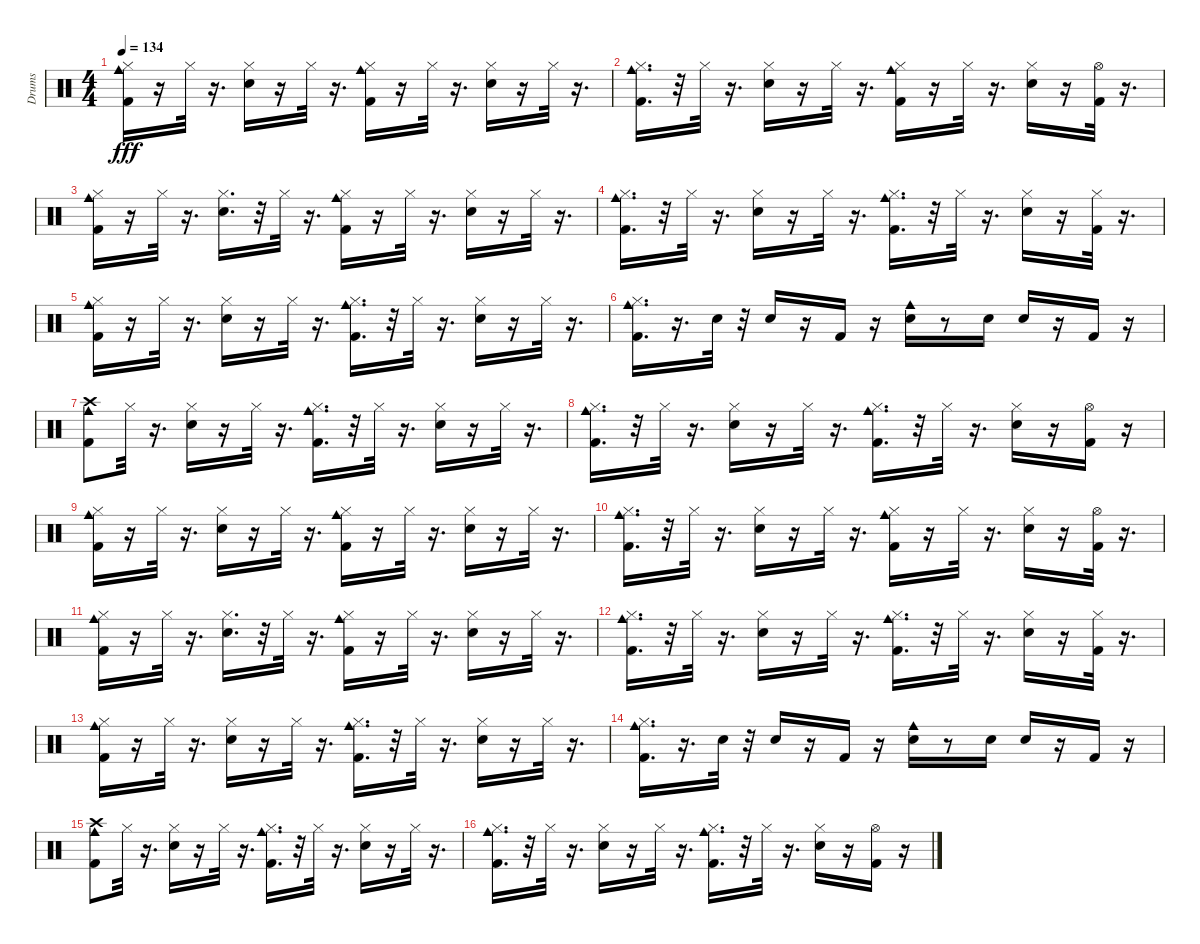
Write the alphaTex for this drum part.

\track ("Drums" "Drums") {instrument percussion}
\staff {score}
\articulation defaults
\ts (4 4)
\tempo 134
\clef neutral
\ks c
("Kick (hit) 2" "Hi-Hat (closed)" "Cowbell medium (hit)").16{dy fff} r.16 "Hi-Hat (closed)".32 r.16{d} ("Snare (hit) 2" "Hi-Hat (closed)").16 r.16 "Hi-Hat (closed)".32 r.16{d} ("Kick (hit) 2" "Hi-Hat (closed)" "Cowbell medium (hit)").16 r.16 "Hi-Hat (closed)".32 r.16{d} ("Snare (hit) 2" "Hi-Hat (closed)").16 r.16 "Hi-Hat (closed)".32 r.16{d} |
("Kick (hit) 2" "Hi-Hat (closed)" "Cowbell medium (hit)").16{d} r.32 "Hi-Hat (closed)".32 r.16{d} ("Snare (hit) 2" "Hi-Hat (closed)").16 r.16 "Hi-Hat (closed)".32 r.16{d} ("Kick (hit) 2" "Hi-Hat (closed)" "Cowbell medium (hit)").16 r.16 "Hi-Hat (closed)".32 r.16{d} ("Snare (hit) 2" "Hi-Hat (closed)").16 r.16 ("Kick (hit) 2" "Hi-Hat (open)").32 r.16{d} |
("Kick (hit) 2" "Hi-Hat (closed)" "Cowbell medium (hit)").16 r.16 "Hi-Hat (closed)".32 r.16{d} ("Snare (hit) 2" "Hi-Hat (closed)").16{d} r.32 "Hi-Hat (closed)".32 r.16{d} ("Kick (hit) 2" "Hi-Hat (closed)" "Cowbell medium (hit)").16 r.16 "Hi-Hat (closed)".32 r.16{d} ("Snare (hit) 2" "Hi-Hat (closed)").16 r.16 "Hi-Hat (closed)".32 r.16{d} |
("Kick (hit) 2" "Hi-Hat (closed)" "Cowbell medium (hit)").16{d} r.32 "Hi-Hat (closed)".32 r.16{d} ("Snare (hit) 2" "Hi-Hat (closed)").16 r.16 "Hi-Hat (closed)".32 r.16{d} ("Kick (hit) 2" "Hi-Hat (closed)" "Cowbell medium (hit)").16{d} r.32 "Hi-Hat (closed)".32 r.16{d} ("Snare (hit) 2" "Hi-Hat (closed)").16 r.16 ("Kick (hit) 2" "Hi-Hat (closed)").32 r.16{d} |
("Kick (hit) 2" "Hi-Hat (closed)" "Cowbell medium (hit)").16 r.16 "Hi-Hat (closed)".32 r.16{d} ("Snare (hit) 2" "Hi-Hat (closed)").16 r.16 "Hi-Hat (closed)".32 r.16{d} ("Kick (hit) 2" "Hi-Hat (closed)" "Cowbell medium (hit)").16{d} r.32 "Hi-Hat (closed)".32 r.16{d} ("Snare (hit) 2" "Hi-Hat (closed)").16 r.16 "Hi-Hat (closed)".32 r.16{d} |
("Kick (hit) 2" "Hi-Hat (closed)" "Cowbell medium (hit)").16{d} r.16{d} "Snare (hit) 2".32 r.32 "Snare (hit) 2".16 r.16 "Kick (hit) 2".16 r.16 ("Snare (hit) 2" "Cowbell medium (hit)").16 r.8 "Snare (hit) 2".16 "Snare (hit) 2".16 r.16 "Kick (hit) 2".16 r.16 |
("Kick (hit) 2" "Crash high (hit)" "Cowbell medium (hit)").8 "Hi-Hat (closed)".32 r.16{d} ("Snare (hit) 2" "Hi-Hat (closed)").16 r.16 "Hi-Hat (closed)".32 r.16{d} ("Kick (hit) 2" "Hi-Hat (closed)" "Cowbell medium (hit)").16{d} r.32 "Hi-Hat (closed)".32 r.16{d} ("Snare (hit) 2" "Hi-Hat (closed)").16 r.16 "Hi-Hat (closed)".32 r.16{d} |
("Kick (hit) 2" "Hi-Hat (closed)" "Cowbell medium (hit)").16{d} r.32 "Hi-Hat (closed)".32 r.16{d} ("Snare (hit) 2" "Hi-Hat (closed)").16 r.16 "Hi-Hat (closed)".32 r.16{d} ("Kick (hit) 2" "Hi-Hat (closed)" "Cowbell medium (hit)").16{d} r.32 "Hi-Hat (closed)".32 r.16{d} ("Snare (hit) 2" "Hi-Hat (closed)").16 r.16 ("Kick (hit) 2" "Hi-Hat (open)").16 r.16 |
("Kick (hit) 2" "Hi-Hat (closed)" "Cowbell medium (hit)").16 r.16 "Hi-Hat (closed)".32 r.16{d} ("Snare (hit) 2" "Hi-Hat (closed)").16 r.16 "Hi-Hat (closed)".32 r.16{d} ("Kick (hit) 2" "Hi-Hat (closed)" "Cowbell medium (hit)").16 r.16 "Hi-Hat (closed)".32 r.16{d} ("Snare (hit) 2" "Hi-Hat (closed)").16 r.16 "Hi-Hat (closed)".32 r.16{d} |
("Kick (hit) 2" "Hi-Hat (closed)" "Cowbell medium (hit)").16{d} r.32 "Hi-Hat (closed)".32 r.16{d} ("Snare (hit) 2" "Hi-Hat (closed)").16 r.16 "Hi-Hat (closed)".32 r.16{d} ("Kick (hit) 2" "Hi-Hat (closed)" "Cowbell medium (hit)").16 r.16 "Hi-Hat (closed)".32 r.16{d} ("Snare (hit) 2" "Hi-Hat (closed)").16 r.16 ("Kick (hit) 2" "Hi-Hat (open)").32 r.16{d} |
("Kick (hit) 2" "Hi-Hat (closed)" "Cowbell medium (hit)").16 r.16 "Hi-Hat (closed)".32 r.16{d} ("Snare (hit) 2" "Hi-Hat (closed)").16{d} r.32 "Hi-Hat (closed)".32 r.16{d} ("Kick (hit) 2" "Hi-Hat (closed)" "Cowbell medium (hit)").16 r.16 "Hi-Hat (closed)".32 r.16{d} ("Snare (hit) 2" "Hi-Hat (closed)").16 r.16 "Hi-Hat (closed)".32 r.16{d} |
("Kick (hit) 2" "Hi-Hat (closed)" "Cowbell medium (hit)").16{d} r.32 "Hi-Hat (closed)".32 r.16{d} ("Snare (hit) 2" "Hi-Hat (closed)").16 r.16 "Hi-Hat (closed)".32 r.16{d} ("Kick (hit) 2" "Hi-Hat (closed)" "Cowbell medium (hit)").16{d} r.32 "Hi-Hat (closed)".32 r.16{d} ("Snare (hit) 2" "Hi-Hat (closed)").16 r.16 ("Kick (hit) 2" "Hi-Hat (closed)").32 r.16{d} |
("Kick (hit) 2" "Hi-Hat (closed)" "Cowbell medium (hit)").16 r.16 "Hi-Hat (closed)".32 r.16{d} ("Snare (hit) 2" "Hi-Hat (closed)").16 r.16 "Hi-Hat (closed)".32 r.16{d} ("Kick (hit) 2" "Hi-Hat (closed)" "Cowbell medium (hit)").16{d} r.32 "Hi-Hat (closed)".32 r.16{d} ("Snare (hit) 2" "Hi-Hat (closed)").16 r.16 "Hi-Hat (closed)".32 r.16{d} |
("Kick (hit) 2" "Hi-Hat (closed)" "Cowbell medium (hit)").16{d} r.16{d} "Snare (hit) 2".32 r.32 "Snare (hit) 2".16 r.16 "Kick (hit) 2".16 r.16 ("Snare (hit) 2" "Cowbell medium (hit)").16 r.8 "Snare (hit) 2".16 "Snare (hit) 2".16 r.16 "Kick (hit) 2".16 r.16 |
("Kick (hit) 2" "Crash high (hit)" "Cowbell medium (hit)").8 "Hi-Hat (closed)".32 r.16{d} ("Snare (hit) 2" "Hi-Hat (closed)").16 r.16 "Hi-Hat (closed)".32 r.16{d} ("Kick (hit) 2" "Hi-Hat (closed)" "Cowbell medium (hit)").16{d} r.32 "Hi-Hat (closed)".32 r.16{d} ("Snare (hit) 2" "Hi-Hat (closed)").16 r.16 "Hi-Hat (closed)".32 r.16{d} |
("Kick (hit) 2" "Hi-Hat (closed)" "Cowbell medium (hit)").16{d} r.32 "Hi-Hat (closed)".32 r.16{d} ("Snare (hit) 2" "Hi-Hat (closed)").16 r.16 "Hi-Hat (closed)".32 r.16{d} ("Kick (hit) 2" "Hi-Hat (closed)" "Cowbell medium (hit)").16{d} r.32 "Hi-Hat (closed)".32 r.16{d} ("Snare (hit) 2" "Hi-Hat (closed)").16 r.16 ("Kick (hit) 2" "Hi-Hat (open)").16 r.16
